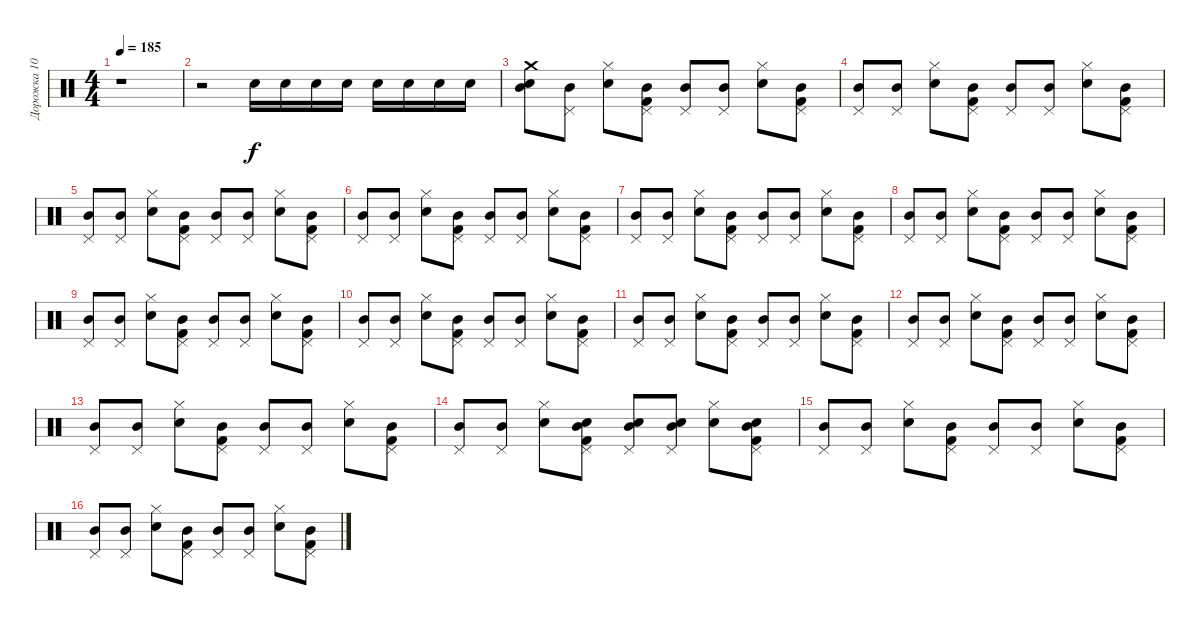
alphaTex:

\track ("Дорожка 10" "Дорожка 10") {instrument percussion}
\staff {score}
\articulation defaults
\ts (4 4)
\tempo 185
\clef neutral
\ks c
r.1{dy f} |
r.2 "Snare (hit) 2".16 "Snare (hit) 2".16 "Snare (hit) 2".16 "Snare (hit) 2".16 "Snare (hit) 2".16 "Snare (hit) 2".16 "Snare (hit) 2".16 "Snare (hit) 2".16 |
("Snare (hit) 2" "Mid Tom (hit)" "Crash medium (hit)").8 ("Mid Tom (hit)" "Pedal Hi-Hat (hit)").8 ("Snare (hit) 2" "Hi-Hat (closed)").8 ("Kick (hit) 2" "Mid Tom (hit)" "Pedal Hi-Hat (hit)").8 ("Mid Tom (hit)" "Pedal Hi-Hat (hit)").8 ("Mid Tom (hit)" "Pedal Hi-Hat (hit)").8 ("Snare (hit) 2" "Hi-Hat (closed)").8 ("Kick (hit) 2" "Mid Tom (hit)" "Pedal Hi-Hat (hit)").8 |
("Mid Tom (hit)" "Pedal Hi-Hat (hit)").8 ("Mid Tom (hit)" "Pedal Hi-Hat (hit)").8 ("Snare (hit) 2" "Hi-Hat (closed)").8 ("Kick (hit) 2" "Mid Tom (hit)" "Pedal Hi-Hat (hit)").8 ("Mid Tom (hit)" "Pedal Hi-Hat (hit)").8 ("Mid Tom (hit)" "Pedal Hi-Hat (hit)").8 ("Snare (hit) 2" "Hi-Hat (closed)").8 ("Kick (hit) 2" "Mid Tom (hit)" "Pedal Hi-Hat (hit)").8 |
("Mid Tom (hit)" "Pedal Hi-Hat (hit)").8 ("Mid Tom (hit)" "Pedal Hi-Hat (hit)").8 ("Snare (hit) 2" "Hi-Hat (closed)").8 ("Kick (hit) 2" "Mid Tom (hit)" "Pedal Hi-Hat (hit)").8 ("Mid Tom (hit)" "Pedal Hi-Hat (hit)").8 ("Mid Tom (hit)" "Pedal Hi-Hat (hit)").8 ("Snare (hit) 2" "Hi-Hat (closed)").8 ("Kick (hit) 2" "Mid Tom (hit)" "Pedal Hi-Hat (hit)").8 |
("Mid Tom (hit)" "Pedal Hi-Hat (hit)").8 ("Mid Tom (hit)" "Pedal Hi-Hat (hit)").8 ("Snare (hit) 2" "Hi-Hat (closed)").8 ("Kick (hit) 2" "Mid Tom (hit)" "Pedal Hi-Hat (hit)").8 ("Mid Tom (hit)" "Pedal Hi-Hat (hit)").8 ("Mid Tom (hit)" "Pedal Hi-Hat (hit)").8 ("Snare (hit) 2" "Hi-Hat (closed)").8 ("Kick (hit) 2" "Mid Tom (hit)" "Pedal Hi-Hat (hit)").8 |
("Mid Tom (hit)" "Pedal Hi-Hat (hit)").8 ("Mid Tom (hit)" "Pedal Hi-Hat (hit)").8 ("Snare (hit) 2" "Hi-Hat (closed)").8 ("Kick (hit) 2" "Mid Tom (hit)" "Pedal Hi-Hat (hit)").8 ("Mid Tom (hit)" "Pedal Hi-Hat (hit)").8 ("Mid Tom (hit)" "Pedal Hi-Hat (hit)").8 ("Snare (hit) 2" "Hi-Hat (closed)").8 ("Kick (hit) 2" "Mid Tom (hit)" "Pedal Hi-Hat (hit)").8 |
("Mid Tom (hit)" "Pedal Hi-Hat (hit)").8 ("Mid Tom (hit)" "Pedal Hi-Hat (hit)").8 ("Snare (hit) 2" "Hi-Hat (closed)").8 ("Kick (hit) 2" "Mid Tom (hit)" "Pedal Hi-Hat (hit)").8 ("Mid Tom (hit)" "Pedal Hi-Hat (hit)").8 ("Mid Tom (hit)" "Pedal Hi-Hat (hit)").8 ("Snare (hit) 2" "Hi-Hat (closed)").8 ("Kick (hit) 2" "Mid Tom (hit)" "Pedal Hi-Hat (hit)").8 |
("Mid Tom (hit)" "Pedal Hi-Hat (hit)").8 ("Mid Tom (hit)" "Pedal Hi-Hat (hit)").8 ("Snare (hit) 2" "Hi-Hat (closed)").8 ("Kick (hit) 2" "Mid Tom (hit)" "Pedal Hi-Hat (hit)").8 ("Mid Tom (hit)" "Pedal Hi-Hat (hit)").8 ("Mid Tom (hit)" "Pedal Hi-Hat (hit)").8 ("Snare (hit) 2" "Hi-Hat (closed)").8 ("Kick (hit) 2" "Mid Tom (hit)" "Pedal Hi-Hat (hit)").8 |
("Mid Tom (hit)" "Pedal Hi-Hat (hit)").8 ("Mid Tom (hit)" "Pedal Hi-Hat (hit)").8 ("Snare (hit) 2" "Hi-Hat (closed)").8 ("Kick (hit) 2" "Mid Tom (hit)" "Pedal Hi-Hat (hit)").8 ("Mid Tom (hit)" "Pedal Hi-Hat (hit)").8 ("Mid Tom (hit)" "Pedal Hi-Hat (hit)").8 ("Snare (hit) 2" "Hi-Hat (closed)").8 ("Kick (hit) 2" "Mid Tom (hit)" "Pedal Hi-Hat (hit)").8 |
("Mid Tom (hit)" "Pedal Hi-Hat (hit)").8 ("Mid Tom (hit)" "Pedal Hi-Hat (hit)").8 ("Snare (hit) 2" "Hi-Hat (closed)").8 ("Kick (hit) 2" "Mid Tom (hit)" "Pedal Hi-Hat (hit)").8 ("Mid Tom (hit)" "Pedal Hi-Hat (hit)").8 ("Mid Tom (hit)" "Pedal Hi-Hat (hit)").8 ("Snare (hit) 2" "Hi-Hat (closed)").8 ("Kick (hit) 2" "Mid Tom (hit)" "Pedal Hi-Hat (hit)").8 |
("Mid Tom (hit)" "Pedal Hi-Hat (hit)").8 ("Mid Tom (hit)" "Pedal Hi-Hat (hit)").8 ("Snare (hit) 2" "Hi-Hat (closed)").8 ("Kick (hit) 2" "Mid Tom (hit)" "Pedal Hi-Hat (hit)").8 ("Mid Tom (hit)" "Pedal Hi-Hat (hit)").8 ("Mid Tom (hit)" "Pedal Hi-Hat (hit)").8 ("Snare (hit) 2" "Hi-Hat (closed)").8 ("Kick (hit) 2" "Mid Tom (hit)" "Pedal Hi-Hat (hit)").8 |
("Mid Tom (hit)" "Pedal Hi-Hat (hit)").8 ("Mid Tom (hit)" "Pedal Hi-Hat (hit)").8 ("Snare (hit) 2" "Hi-Hat (closed)").8 ("Kick (hit) 2" "Mid Tom (hit)" "Pedal Hi-Hat (hit)").8 ("Mid Tom (hit)" "Pedal Hi-Hat (hit)").8 ("Mid Tom (hit)" "Pedal Hi-Hat (hit)").8 ("Snare (hit) 2" "Hi-Hat (closed)").8 ("Kick (hit) 2" "Mid Tom (hit)" "Pedal Hi-Hat (hit)").8 |
("Mid Tom (hit)" "Pedal Hi-Hat (hit)").8 ("Mid Tom (hit)" "Pedal Hi-Hat (hit)").8 ("Snare (hit) 2" "Hi-Hat (closed)").8 ("Kick (hit) 2" "Snare (hit) 2" "Mid Tom (hit)" "Pedal Hi-Hat (hit)").8 ("Snare (hit) 2" "Mid Tom (hit)" "Pedal Hi-Hat (hit)").8 ("Snare (hit) 2" "Mid Tom (hit)" "Pedal Hi-Hat (hit)").8 ("Snare (hit) 2" "Hi-Hat (closed)").8 ("Kick (hit) 2" "Snare (hit) 2" "Mid Tom (hit)" "Pedal Hi-Hat (hit)").8 |
("Mid Tom (hit)" "Pedal Hi-Hat (hit)").8 ("Mid Tom (hit)" "Pedal Hi-Hat (hit)").8 ("Snare (hit) 2" "Hi-Hat (closed)").8 ("Kick (hit) 2" "Mid Tom (hit)" "Pedal Hi-Hat (hit)").8 ("Mid Tom (hit)" "Pedal Hi-Hat (hit)").8 ("Mid Tom (hit)" "Pedal Hi-Hat (hit)").8 ("Snare (hit) 2" "Hi-Hat (closed)").8 ("Kick (hit) 2" "Mid Tom (hit)" "Pedal Hi-Hat (hit)").8 |
("Mid Tom (hit)" "Pedal Hi-Hat (hit)").8 ("Mid Tom (hit)" "Pedal Hi-Hat (hit)").8 ("Snare (hit) 2" "Hi-Hat (closed)").8 ("Kick (hit) 2" "Mid Tom (hit)" "Pedal Hi-Hat (hit)").8 ("Mid Tom (hit)" "Pedal Hi-Hat (hit)").8 ("Mid Tom (hit)" "Pedal Hi-Hat (hit)").8 ("Snare (hit) 2" "Hi-Hat (closed)").8 ("Kick (hit) 2" "Mid Tom (hit)" "Pedal Hi-Hat (hit)").8
